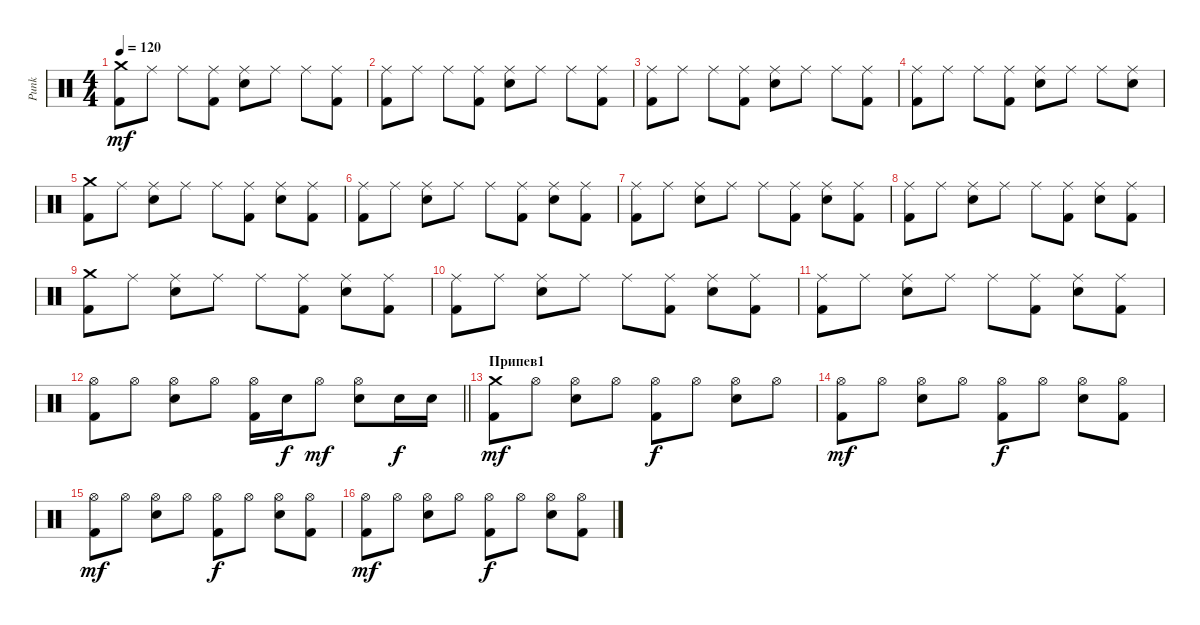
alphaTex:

\track ("Punk" "Punk") {instrument percussion}
\staff {score}
\articulation defaults
\ts (4 4)
\tempo 120
\clef neutral
\ks c
("Crash medium (hit)" "Kick (hit) 2").8{dy mf} "Ride (middle)".8 "Ride (middle)".8 ("Ride (middle)" "Kick (hit) 2").8 ("Ride (middle)" "Electric Snare (hit)").8 "Ride (middle)".8 "Ride (middle)".8 ("Ride (middle)" "Kick (hit) 2").8 |
("Ride (middle)" "Kick (hit) 2").8 "Ride (middle)".8 "Ride (middle)".8 ("Ride (middle)" "Kick (hit) 2").8 ("Ride (middle)" "Electric Snare (hit)").8 "Ride (middle)".8 "Ride (middle)".8 ("Ride (middle)" "Kick (hit) 2").8 |
("Ride (middle)" "Kick (hit) 2").8 "Ride (middle)".8 "Ride (middle)".8 ("Ride (middle)" "Kick (hit) 2").8 ("Ride (middle)" "Electric Snare (hit)").8 "Ride (middle)".8 "Ride (middle)".8 ("Ride (middle)" "Kick (hit) 2").8 |
("Ride (middle)" "Kick (hit) 2").8 "Ride (middle)".8 "Ride (middle)".8 ("Ride (middle)" "Kick (hit) 2").8 ("Ride (middle)" "Electric Snare (hit)").8 "Ride (middle)".8 "Ride (middle)".8 ("Ride (middle)" "Electric Snare (hit)").8 |
("Crash medium (hit)" "Kick (hit) 2").8 "Ride (middle)".8 ("Ride (middle)" "Electric Snare (hit)").8 "Ride (middle)".8 "Ride (middle)".8 ("Ride (middle)" "Kick (hit) 2").8 ("Ride (middle)" "Electric Snare (hit)").8 ("Ride (middle)" "Kick (hit) 2").8 |
("Ride (middle)" "Kick (hit) 2").8 "Ride (middle)".8 ("Ride (middle)" "Electric Snare (hit)").8 "Ride (middle)".8 "Ride (middle)".8 ("Ride (middle)" "Kick (hit) 2").8 ("Ride (middle)" "Electric Snare (hit)").8 ("Ride (middle)" "Kick (hit) 2").8 |
("Ride (middle)" "Kick (hit) 2").8 "Ride (middle)".8 ("Ride (middle)" "Electric Snare (hit)").8 "Ride (middle)".8 "Ride (middle)".8 ("Ride (middle)" "Kick (hit) 2").8 ("Ride (middle)" "Electric Snare (hit)").8 ("Ride (middle)" "Kick (hit) 2").8 |
("Ride (middle)" "Kick (hit) 2").8 "Ride (middle)".8 ("Ride (middle)" "Electric Snare (hit)").8 "Ride (middle)".8 "Ride (middle)".8 ("Ride (middle)" "Kick (hit) 2").8 ("Ride (middle)" "Electric Snare (hit)").8 ("Ride (middle)" "Kick (hit) 2").8 |
("Crash medium (hit)" "Kick (hit) 2").8 "Ride (middle)".8 ("Ride (middle)" "Electric Snare (hit)").8 "Ride (middle)".8 "Ride (middle)".8 ("Ride (middle)" "Kick (hit) 2").8 ("Ride (middle)" "Electric Snare (hit)").8 ("Ride (middle)" "Kick (hit) 2").8 |
("Ride (middle)" "Kick (hit) 2").8 "Ride (middle)".8 ("Ride (middle)" "Electric Snare (hit)").8 "Ride (middle)".8 "Ride (middle)".8 ("Ride (middle)" "Kick (hit) 2").8 ("Ride (middle)" "Electric Snare (hit)").8 ("Ride (middle)" "Kick (hit) 2").8 |
("Ride (middle)" "Kick (hit) 2").8 "Ride (middle)".8 ("Ride (middle)" "Electric Snare (hit)").8 "Ride (middle)".8 "Ride (middle)".8 ("Ride (middle)" "Kick (hit) 2").8 ("Ride (middle)" "Electric Snare (hit)").8 ("Ride (middle)" "Kick (hit) 2").8 |
\barLineRight lightlight
("Hi-Hat (open)" "Kick (hit) 2").8 "Hi-Hat (open)".8 ("Hi-Hat (open)" "Electric Snare (hit)").8 "Hi-Hat (open)".8 ("Hi-Hat (open)" "Kick (hit) 2").16 "Electric Snare (hit)".16{dy f} "Hi-Hat (open)".8{dy mf} ("Hi-Hat (open)" "Electric Snare (hit)").8 "Electric Snare (hit)".16{dy f} "Electric Snare (hit)".16 |
\section ("" "Припев1")
("Crash medium (hit)" "Kick (hit) 2").8{dy mf} "Hi-Hat (open)".8 ("Hi-Hat (open)" "Electric Snare (hit)").8 "Hi-Hat (open)".8 ("Hi-Hat (open)" "Kick (hit) 2").8{dy f} "Hi-Hat (open)".8 ("Hi-Hat (open)" "Electric Snare (hit)").8 "Hi-Hat (open)".8 |
("Hi-Hat (open)" "Kick (hit) 2").8{dy mf} "Hi-Hat (open)".8 ("Hi-Hat (open)" "Electric Snare (hit)").8 "Hi-Hat (open)".8 ("Hi-Hat (open)" "Kick (hit) 2").8{dy f} "Hi-Hat (open)".8 ("Hi-Hat (open)" "Electric Snare (hit)").8 ("Hi-Hat (open)" "Kick (hit) 2").8 |
("Hi-Hat (open)" "Kick (hit) 2").8{dy mf} "Hi-Hat (open)".8 ("Hi-Hat (open)" "Electric Snare (hit)").8 "Hi-Hat (open)".8 ("Hi-Hat (open)" "Kick (hit) 2").8{dy f} "Hi-Hat (open)".8 ("Hi-Hat (open)" "Electric Snare (hit)").8 ("Hi-Hat (open)" "Kick (hit) 2").8 |
("Hi-Hat (open)" "Kick (hit) 2").8{dy mf} "Hi-Hat (open)".8 ("Hi-Hat (open)" "Electric Snare (hit)").8 "Hi-Hat (open)".8 ("Hi-Hat (open)" "Kick (hit) 2").8{dy f} "Hi-Hat (open)".8 ("Hi-Hat (open)" "Electric Snare (hit)").8 ("Hi-Hat (open)" "Kick (hit) 2").8
